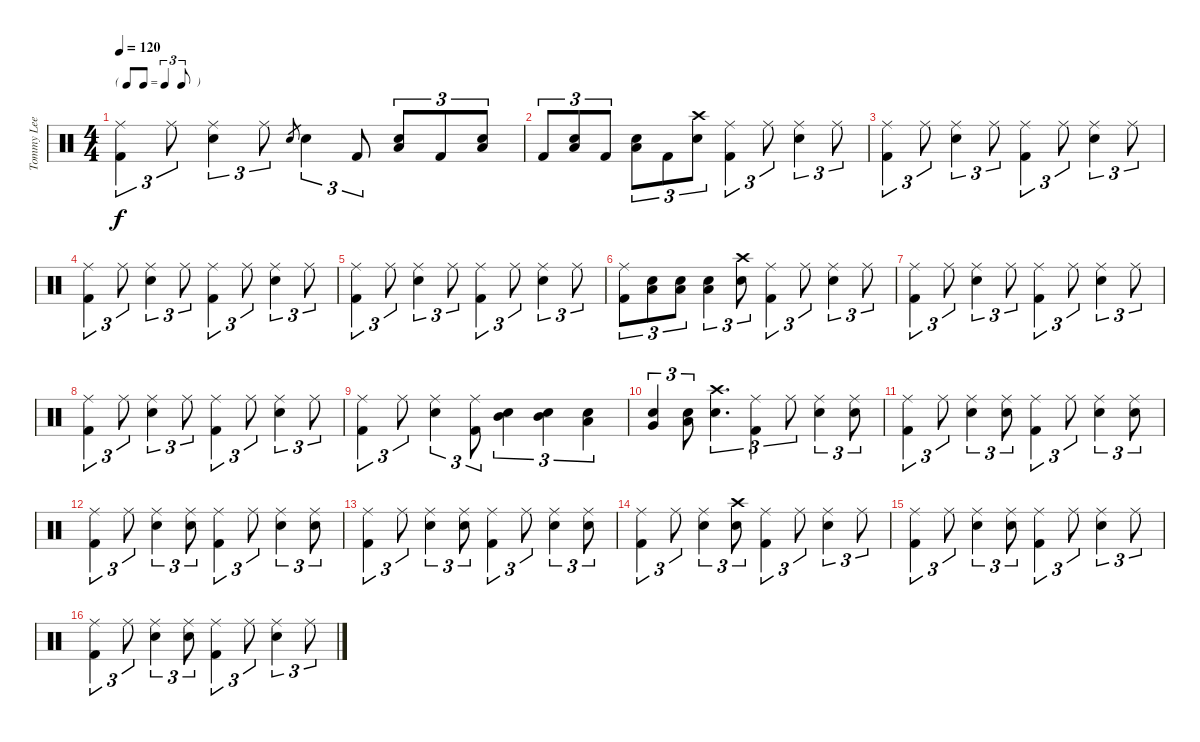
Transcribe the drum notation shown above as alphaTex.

\track ("Tommy Lee - Drums" "Tommy Lee ") {instrument percussion}
\staff {score}
\articulation defaults
\ts (4 4)
\tf triplet8th
\tempo 120
\clef neutral
\ks c
("Ride (middle)" "Kick (hit) 2").4{tu (3 2) dy f} "Ride (middle)".8{tu (3 2)} ("Ride (middle)" "Snare (hit) 2").4{tu (3 2)} "Ride (middle)".8{tu (3 2)} "Snare (hit) 2".8{gr} "Snare (hit) 2".4{tu (3 2)} "Kick (hit) 2".8{tu (3 2)} ("Snare (hit) 2" "Low Floor Tom (hit)").8{tu (3 2)} "Kick (hit) 2".8{tu (3 2)} ("Snare (hit) 2" "Low Floor Tom (hit)").8{tu (3 2)} |
"Kick (hit) 2".8{tu (3 2)} ("Snare (hit) 2" "Low Floor Tom (hit)").8{tu (3 2)} "Kick (hit) 2".8{tu (3 2)} ("Snare (hit) 2" "Low Floor Tom (hit)").8{tu (3 2)} "Kick (hit) 2".8{tu (3 2)} ("Crash high (hit)" "Snare (hit) 2").8{tu (3 2)} ("Ride (middle)" "Kick (hit) 2").4{tu (3 2)} "Ride (middle)".8{tu (3 2)} ("Ride (middle)" "Snare (hit) 2").4{tu (3 2)} "Ride (middle)".8{tu (3 2)} |
("Ride (middle)" "Kick (hit) 2").4{tu (3 2)} "Ride (middle)".8{tu (3 2)} ("Ride (middle)" "Snare (hit) 2").4{tu (3 2)} "Ride (middle)".8{tu (3 2)} ("Ride (middle)" "Kick (hit) 2").4{tu (3 2)} "Ride (middle)".8{tu (3 2)} ("Ride (middle)" "Snare (hit) 2").4{tu (3 2)} "Ride (middle)".8{tu (3 2)} |
("Ride (middle)" "Kick (hit) 2").4{tu (3 2)} "Ride (middle)".8{tu (3 2)} ("Ride (middle)" "Snare (hit) 2").4{tu (3 2)} "Ride (middle)".8{tu (3 2)} ("Ride (middle)" "Kick (hit) 2").4{tu (3 2)} "Ride (middle)".8{tu (3 2)} ("Ride (middle)" "Snare (hit) 2").4{tu (3 2)} "Ride (middle)".8{tu (3 2)} |
("Ride (middle)" "Kick (hit) 2").4{tu (3 2)} "Ride (middle)".8{tu (3 2)} ("Ride (middle)" "Snare (hit) 2").4{tu (3 2)} "Ride (middle)".8{tu (3 2)} ("Ride (middle)" "Kick (hit) 2").4{tu (3 2)} "Ride (middle)".8{tu (3 2)} ("Ride (middle)" "Snare (hit) 2").4{tu (3 2)} "Ride (middle)".8{tu (3 2)} |
("Ride (middle)" "Kick (hit) 2").8{tu (3 2)} ("Snare (hit) 2" "Low Floor Tom (hit)").8{tu (3 2)} ("Snare (hit) 2" "Low Floor Tom (hit)").8{tu (3 2)} ("Snare (hit) 2" "Low Floor Tom (hit)").4{tu (3 2)} ("Crash high (hit)" "Snare (hit) 2").8{tu (3 2)} ("Ride (middle)" "Kick (hit) 2").4{tu (3 2)} "Ride (middle)".8{tu (3 2)} ("Ride (middle)" "Snare (hit) 2").4{tu (3 2)} "Ride (middle)".8{tu (3 2)} |
("Ride (middle)" "Kick (hit) 2").4{tu (3 2)} "Ride (middle)".8{tu (3 2)} ("Ride (middle)" "Snare (hit) 2").4{tu (3 2)} "Ride (middle)".8{tu (3 2)} ("Ride (middle)" "Kick (hit) 2").4{tu (3 2)} "Ride (middle)".8{tu (3 2)} ("Ride (middle)" "Snare (hit) 2").4{tu (3 2)} "Ride (middle)".8{tu (3 2)} |
("Ride (middle)" "Kick (hit) 2").4{tu (3 2)} "Ride (middle)".8{tu (3 2)} ("Ride (middle)" "Snare (hit) 2").4{tu (3 2)} "Ride (middle)".8{tu (3 2)} ("Ride (middle)" "Kick (hit) 2").4{tu (3 2)} "Ride (middle)".8{tu (3 2)} ("Ride (middle)" "Snare (hit) 2").4{tu (3 2)} "Ride (middle)".8{tu (3 2)} |
("Ride (middle)" "Kick (hit) 2").4{tu (3 2)} "Ride (middle)".8{tu (3 2)} ("Ride (middle)" "Snare (hit) 2").4{tu (3 2)} ("Ride (middle)" "Kick (hit) 2").8{tu (3 2)} ("Snare (hit) 2" "Mid Tom (hit)").4{tu (3 2)} ("Snare (hit) 2" "Mid Tom (hit)").4{tu (3 2)} ("Snare (hit) 2" "Low Tom (hit)").4{tu (3 2)} |
("Snare (hit) 2" "Very Low Tom (hit)").4{tu (3 2)} ("Snare (hit) 2" "Low Floor Tom (hit)").8{tu (3 2)} ("Crash high (hit)" "Snare (hit) 2").4{d tu (3 2)} ("Ride (middle)" "Kick (hit) 2").4{tu (3 2)} "Ride (middle)".8{tu (3 2)} ("Ride (middle)" "Snare (hit) 2").4{tu (3 2)} ("Ride (middle)" "Snare (hit) 2").8{tu (3 2)} |
("Ride (middle)" "Kick (hit) 2").4{tu (3 2)} "Ride (middle)".8{tu (3 2)} ("Ride (middle)" "Snare (hit) 2").4{tu (3 2)} ("Ride (middle)" "Snare (hit) 2").8{tu (3 2)} ("Ride (middle)" "Kick (hit) 2").4{tu (3 2)} "Ride (middle)".8{tu (3 2)} ("Ride (middle)" "Snare (hit) 2").4{tu (3 2)} ("Ride (middle)" "Snare (hit) 2").8{tu (3 2)} |
("Ride (middle)" "Kick (hit) 2").4{tu (3 2)} "Ride (middle)".8{tu (3 2)} ("Ride (middle)" "Snare (hit) 2").4{tu (3 2)} ("Ride (middle)" "Snare (hit) 2").8{tu (3 2)} ("Ride (middle)" "Kick (hit) 2").4{tu (3 2)} "Ride (middle)".8{tu (3 2)} ("Ride (middle)" "Snare (hit) 2").4{tu (3 2)} ("Ride (middle)" "Snare (hit) 2").8{tu (3 2)} |
("Ride (middle)" "Kick (hit) 2").4{tu (3 2)} "Ride (middle)".8{tu (3 2)} ("Ride (middle)" "Snare (hit) 2").4{tu (3 2)} ("Ride (middle)" "Snare (hit) 2").8{tu (3 2)} ("Ride (middle)" "Kick (hit) 2").4{tu (3 2)} "Ride (middle)".8{tu (3 2)} ("Ride (middle)" "Snare (hit) 2").4{tu (3 2)} ("Ride (middle)" "Snare (hit) 2").8{tu (3 2)} |
("Ride (middle)" "Kick (hit) 2").4{tu (3 2)} "Ride (middle)".8{tu (3 2)} ("Ride (middle)" "Snare (hit) 2").4{tu (3 2)} ("Crash high (hit)" "Snare (hit) 2").8{tu (3 2)} ("Ride (middle)" "Kick (hit) 2").4{tu (3 2)} "Ride (middle)".8{tu (3 2)} ("Ride (middle)" "Snare (hit) 2").4{tu (3 2)} "Ride (middle)".8{tu (3 2)} |
("Ride (middle)" "Kick (hit) 2").4{tu (3 2)} "Ride (middle)".8{tu (3 2)} ("Ride (middle)" "Snare (hit) 2").4{tu (3 2)} ("Ride (middle)" "Snare (hit) 2").8{tu (3 2)} ("Ride (middle)" "Kick (hit) 2").4{tu (3 2)} "Ride (middle)".8{tu (3 2)} ("Ride (middle)" "Snare (hit) 2").4{tu (3 2)} "Ride (middle)".8{tu (3 2)} |
("Ride (middle)" "Kick (hit) 2").4{tu (3 2)} "Ride (middle)".8{tu (3 2)} ("Ride (middle)" "Snare (hit) 2").4{tu (3 2)} ("Ride (middle)" "Snare (hit) 2").8{tu (3 2)} ("Ride (middle)" "Kick (hit) 2").4{tu (3 2)} "Ride (middle)".8{tu (3 2)} ("Ride (middle)" "Snare (hit) 2").4{tu (3 2)} "Ride (middle)".8{tu (3 2)}
